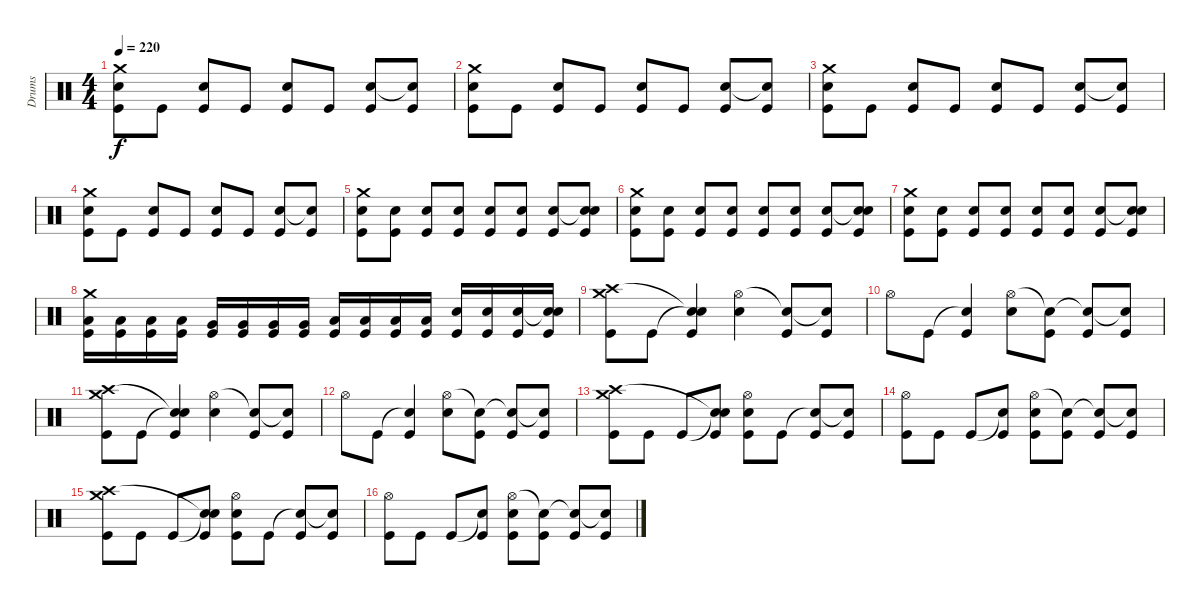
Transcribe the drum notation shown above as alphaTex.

\track ("Drums" "Drums") {instrument percussion}
\staff {score}
\articulation defaults
\ts (4 4)
\tempo 220
\clef neutral
\ks c
("Crash medium (hit)" "Electric Snare (hit)" "Kick (hit)").8{dy f} "Kick (hit)".8 ("Electric Snare (hit)" "Kick (hit)").8 "Kick (hit)".8 ("Electric Snare (hit)" "Kick (hit)").8 "Kick (hit)".8 ("Electric Snare (hit)" "Kick (hit)").8 ("Snare (hit)"{t} "Kick (hit)").8 |
("Crash medium (hit)" "Electric Snare (hit)" "Kick (hit)").8 "Kick (hit)".8 ("Electric Snare (hit)" "Kick (hit)").8 "Kick (hit)".8 ("Electric Snare (hit)" "Kick (hit)").8 "Kick (hit)".8 ("Electric Snare (hit)" "Kick (hit)").8 ("Snare (hit)"{t} "Kick (hit)").8 |
("Crash medium (hit)" "Electric Snare (hit)" "Kick (hit)").8 "Kick (hit)".8 ("Electric Snare (hit)" "Kick (hit)").8 "Kick (hit)".8 ("Electric Snare (hit)" "Kick (hit)").8 "Kick (hit)".8 ("Electric Snare (hit)" "Kick (hit)").8 ("Snare (hit)"{t} "Kick (hit)").8 |
("Crash medium (hit)" "Electric Snare (hit)" "Kick (hit)").8 "Kick (hit)".8 ("Electric Snare (hit)" "Kick (hit)").8 "Kick (hit)".8 ("Electric Snare (hit)" "Kick (hit)").8 "Kick (hit)".8 ("Electric Snare (hit)" "Kick (hit)").8 ("Snare (hit)"{t} "Kick (hit)").8 |
("Crash medium (hit)" "Electric Snare (hit)" "Kick (hit)").8 ("Electric Snare (hit)" "Kick (hit)").8 ("Electric Snare (hit)" "Kick (hit)").8 ("Electric Snare (hit)" "Kick (hit)").8 ("Electric Snare (hit)" "Kick (hit)").8 ("Electric Snare (hit)" "Kick (hit)").8 ("Electric Snare (hit)" "Kick (hit)").8 ("Snare (hit)"{t} "Electric Snare (hit)" "Kick (hit)").8 |
("Crash medium (hit)" "Electric Snare (hit)" "Kick (hit)").8 ("Electric Snare (hit)" "Kick (hit)").8 ("Electric Snare (hit)" "Kick (hit)").8 ("Electric Snare (hit)" "Kick (hit)").8 ("Electric Snare (hit)" "Kick (hit)").8 ("Electric Snare (hit)" "Kick (hit)").8 ("Electric Snare (hit)" "Kick (hit)").8 ("Snare (hit)"{t} "Electric Snare (hit)" "Kick (hit)").8 |
("Crash medium (hit)" "Electric Snare (hit)" "Kick (hit)").8 ("Electric Snare (hit)" "Kick (hit)").8 ("Electric Snare (hit)" "Kick (hit)").8 ("Electric Snare (hit)" "Kick (hit)").8 ("Electric Snare (hit)" "Kick (hit)").8 ("Electric Snare (hit)" "Kick (hit)").8 ("Electric Snare (hit)" "Kick (hit)").8 ("Snare (hit)"{t} "Electric Snare (hit)" "Kick (hit)").8 |
("Crash medium (hit)" "Low Tom (hit)" "Kick (hit)").16 ("Low Tom (hit)" "Kick (hit)").16 ("Low Tom (hit)" "Kick (hit)").16 ("Low Tom (hit)" "Kick (hit)").16 ("Very Low Tom (hit)" "Kick (hit)").16 ("Very Low Tom (hit)" "Kick (hit)").16 ("Very Low Tom (hit)" "Kick (hit)").16 ("Very Low Tom (hit)" "Kick (hit)").16 ("Low Floor Tom (hit)" "Kick (hit)").16 ("Low Floor Tom (hit)" "Kick (hit)").16 ("Low Floor Tom (hit)" "Kick (hit)").16 ("Low Floor Tom (hit)" "Kick (hit)").16 ("Electric Snare (hit)" "Kick (hit)").16 ("Electric Snare (hit)" "Kick (hit)").16 ("Electric Snare (hit)" "Kick (hit)").16 ("Snare (hit)"{t} "Electric Snare (hit)" "Kick (hit)").16 |
("Crash medium (hit)" "Crash high (hit)" "Kick (hit)").8 "Kick (hit)".8 ("Snare (hit)"{t} "Snare (hit)"{t} "Kick (hit)").4 ("Hi-Hat (open)" "Electric Snare (hit)").4 ("Snare (hit)"{t} "Kick (hit)").8 ("Snare (hit)"{t} "Kick (hit)").8 |
"Hi-Hat (open)".8 "Kick (hit)".8 ("Snare (hit)"{t} "Kick (hit)").4 ("Hi-Hat (open)" "Electric Snare (hit)").8 ("Snare (hit)"{t} "Kick (hit)").8 ("Snare (hit)"{t} "Kick (hit)").8 ("Snare (hit)"{t} "Kick (hit)").8 |
("Crash medium (hit)" "Crash high (hit)" "Kick (hit)").8 "Kick (hit)".8 ("Snare (hit)"{t} "Snare (hit)"{t} "Kick (hit)").4 ("Hi-Hat (open)" "Electric Snare (hit)").4 ("Snare (hit)"{t} "Kick (hit)").8 ("Snare (hit)"{t} "Kick (hit)").8 |
"Hi-Hat (open)".8 "Kick (hit)".8 ("Snare (hit)"{t} "Kick (hit)").4 ("Hi-Hat (open)" "Electric Snare (hit)").8 ("Snare (hit)"{t} "Kick (hit)").8 ("Snare (hit)"{t} "Kick (hit)").8 ("Snare (hit)"{t} "Kick (hit)").8 |
("Crash medium (hit)" "Crash high (hit)" "Kick (hit)").8 "Kick (hit)".8 "Kick (hit)".8 ("Snare (hit)"{t} "Snare (hit)"{t} "Kick (hit)").8 ("Hi-Hat (open)" "Electric Snare (hit)" "Kick (hit)").8 "Kick (hit)".8 ("Snare (hit)"{t} "Kick (hit)").8 ("Snare (hit)"{t} "Kick (hit)").8 |
("Hi-Hat (open)" "Kick (hit)").8 "Kick (hit)".8 "Kick (hit)".8 ("Snare (hit)"{t} "Kick (hit)").8 ("Hi-Hat (open)" "Electric Snare (hit)" "Kick (hit)").8 ("Snare (hit)"{t} "Kick (hit)").8 ("Snare (hit)"{t} "Kick (hit)").8 ("Snare (hit)"{t} "Kick (hit)").8 |
("Crash medium (hit)" "Crash high (hit)" "Kick (hit)").8 "Kick (hit)".8 "Kick (hit)".8 ("Snare (hit)"{t} "Snare (hit)"{t} "Kick (hit)").8 ("Hi-Hat (open)" "Electric Snare (hit)" "Kick (hit)").8 "Kick (hit)".8 ("Snare (hit)"{t} "Kick (hit)").8 ("Snare (hit)"{t} "Kick (hit)").8 |
("Hi-Hat (open)" "Kick (hit)").8 "Kick (hit)".8 "Kick (hit)".8 ("Snare (hit)"{t} "Kick (hit)").8 ("Hi-Hat (open)" "Electric Snare (hit)" "Kick (hit)").8 ("Snare (hit)"{t} "Kick (hit)").8 ("Snare (hit)"{t} "Kick (hit)").8 ("Snare (hit)"{t} "Kick (hit)").8
